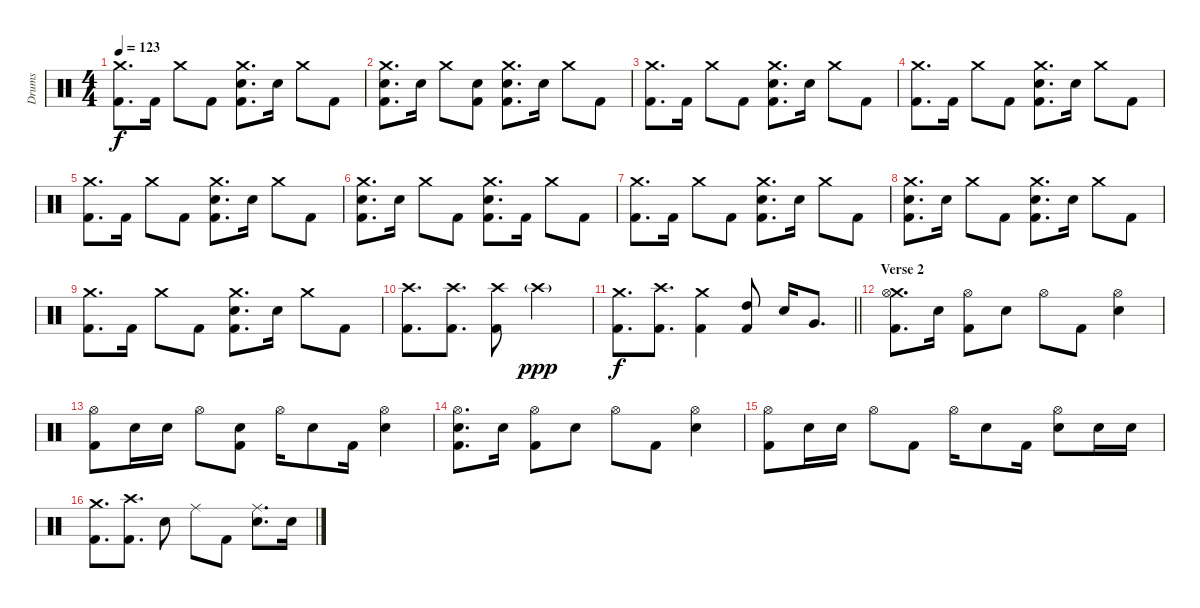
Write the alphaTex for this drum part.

\track ("Drums" "Drums") {instrument percussion}
\staff {score}
\articulation defaults
\ts (4 4)
\tempo 123
\clef neutral
\ks c
("Crash medium (hit)" "Kick (hit) 2").8{d dy f} "Kick (hit) 2".16 "Crash medium (hit)".8 "Kick (hit) 2".8 ("Crash medium (hit)" "Electric Snare (hit)" "Kick (hit) 2").8{d} "Electric Snare (hit)".16 "Crash medium (hit)".8 "Kick (hit) 2".8 |
("Crash medium (hit)" "Electric Snare (hit)" "Kick (hit) 2").8{d} "Electric Snare (hit)".16 "Crash medium (hit)".8 ("Electric Snare (hit)" "Kick (hit) 2").8 ("Crash medium (hit)" "Electric Snare (hit)" "Kick (hit) 2").8{d} "Electric Snare (hit)".16 "Crash medium (hit)".8 "Kick (hit) 2".8 |
("Crash medium (hit)" "Kick (hit) 2").8{d} "Kick (hit) 2".16 "Crash medium (hit)".8 "Kick (hit) 2".8 ("Crash medium (hit)" "Electric Snare (hit)" "Kick (hit) 2").8{d} "Electric Snare (hit)".16 "Crash medium (hit)".8 "Kick (hit) 2".8 |
("Crash medium (hit)" "Kick (hit) 2").8{d} "Kick (hit) 2".16 "Crash medium (hit)".8 "Kick (hit) 2".8 ("Crash medium (hit)" "Electric Snare (hit)" "Kick (hit) 2").8{d} "Electric Snare (hit)".16 "Crash medium (hit)".8 "Kick (hit) 2".8 |
("Crash medium (hit)" "Kick (hit) 2").8{d} "Kick (hit) 2".16 "Crash medium (hit)".8 "Kick (hit) 2".8 ("Crash medium (hit)" "Electric Snare (hit)" "Kick (hit) 2").8{d} "Electric Snare (hit)".16 "Crash medium (hit)".8 "Kick (hit) 2".8 |
("Crash medium (hit)" "Electric Snare (hit)" "Kick (hit) 2").8{d} "Electric Snare (hit)".16 "Crash medium (hit)".8 "Kick (hit) 2".8 ("Crash medium (hit)" "Electric Snare (hit)" "Kick (hit) 2").8{d} "Kick (hit) 2".16 "Crash medium (hit)".8 "Kick (hit) 2".8 |
("Crash medium (hit)" "Kick (hit) 2").8{d} "Kick (hit) 2".16 "Crash medium (hit)".8 "Kick (hit) 2".8 ("Crash medium (hit)" "Electric Snare (hit)" "Kick (hit) 2").8{d} "Electric Snare (hit)".16 "Crash medium (hit)".8 "Kick (hit) 2".8 |
("Crash medium (hit)" "Electric Snare (hit)" "Kick (hit) 2").8{d} "Electric Snare (hit)".16 "Crash medium (hit)".8 "Kick (hit) 2".8 ("Crash medium (hit)" "Electric Snare (hit)" "Kick (hit) 2").8{d} "Electric Snare (hit)".16 "Crash medium (hit)".8 "Kick (hit) 2".8 |
("Crash medium (hit)" "Kick (hit) 2").8{d} "Kick (hit) 2".16 "Crash medium (hit)".8 "Kick (hit) 2".8 ("Crash medium (hit)" "Electric Snare (hit)" "Kick (hit) 2").8{d} "Electric Snare (hit)".16 "Crash medium (hit)".8 "Kick (hit) 2".8 |
("Crash high (hit)" "Kick (hit) 2").8{d} ("Crash high (hit)" "Kick (hit) 2").8{d} ("Crash high (hit)" "Kick (hit) 2").8 "Crash high (hit)"{g}.2{dy ppp} |
\barLineRight lightlight
("Crash medium (hit)" "Kick (hit) 2").8{d dy f} ("Crash high (hit)" "Kick (hit) 2").8{d} ("Crash medium (hit)" "Kick (hit) 2").4 ("High Tom (hit)" "Kick (hit) 2").8 "Electric Snare (hit)".16 "Very Low Tom (hit)".8{d} |
\section ("" "Verse 2")
("Crash medium (hit)" "Hi-Hat (open)" "Kick (hit) 2").8{d} "Electric Snare (hit)".16 ("Hi-Hat (open)" "Kick (hit) 2").8 "Electric Snare (hit)".8 "Hi-Hat (open)".8 "Kick (hit) 2".8 ("Hi-Hat (open)" "Electric Snare (hit)").4 |
("Hi-Hat (open)" "Kick (hit) 2").8 "Electric Snare (hit)".16 "Electric Snare (hit)".16 "Hi-Hat (open)".8 ("Electric Snare (hit)" "Kick (hit) 2").8 "Hi-Hat (open)".16 "Electric Snare (hit)".8 "Kick (hit) 2".16 ("Hi-Hat (open)" "Electric Snare (hit)").4 |
("Hi-Hat (open)" "Electric Snare (hit)" "Kick (hit) 2").8{d} "Electric Snare (hit)".16 ("Hi-Hat (open)" "Kick (hit) 2").8 "Electric Snare (hit)".8 "Hi-Hat (open)".8 "Kick (hit) 2".8 ("Hi-Hat (open)" "Electric Snare (hit)").4 |
("Hi-Hat (open)" "Kick (hit) 2").8 "Electric Snare (hit)".16 "Electric Snare (hit)".16 "Hi-Hat (open)".8 "Kick (hit) 2".8 "Hi-Hat (open)".16 "Electric Snare (hit)".8 "Kick (hit) 2".16 ("Hi-Hat (open)" "Electric Snare (hit)").8 "Electric Snare (hit)".16 "Electric Snare (hit)".16 |
("Crash medium (hit)" "Kick (hit) 2").8{d} ("Crash high (hit)" "Kick (hit) 2").8{d} "Electric Snare (hit)".8 "Ride (middle)".8 "Kick (hit) 2".8 ("Ride (middle)" "Electric Snare (hit)").8{d} "Electric Snare (hit)".16
